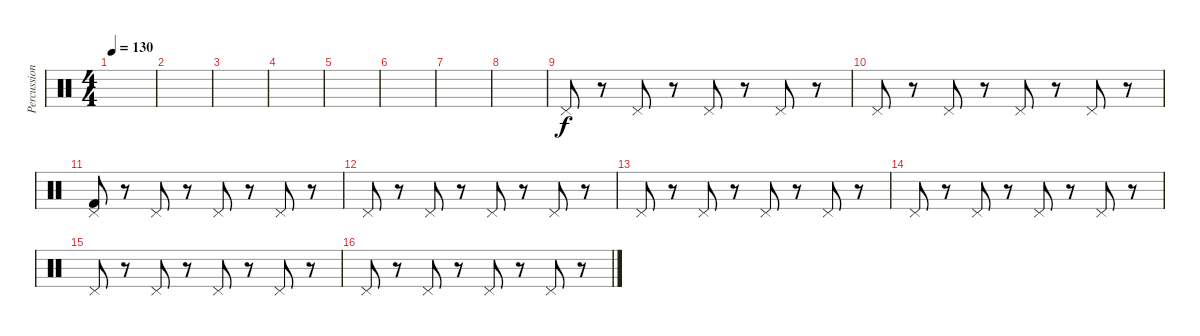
\track ("Percussion" "Percussion") {instrument percussion}
\staff {score}
\articulation defaults
\ts (4 4)
\tempo 130
\clef neutral
\ks c
|
|
|
|
|
|
|
|
"Pedal Hi-Hat (hit)".8 r.8 "Pedal Hi-Hat (hit)".8 r.8 "Pedal Hi-Hat (hit)".8 r.8 "Pedal Hi-Hat (hit)".8 r.8 |
"Pedal Hi-Hat (hit)".8 r.8 "Pedal Hi-Hat (hit)".8 r.8 "Pedal Hi-Hat (hit)".8 r.8 "Pedal Hi-Hat (hit)".8 r.8 |
("Kick (hit) 2" "Pedal Hi-Hat (hit)").8 r.8 "Pedal Hi-Hat (hit)".8 r.8 "Pedal Hi-Hat (hit)".8 r.8 "Pedal Hi-Hat (hit)".8 r.8 |
"Pedal Hi-Hat (hit)".8 r.8 "Pedal Hi-Hat (hit)".8 r.8 "Pedal Hi-Hat (hit)".8 r.8 "Pedal Hi-Hat (hit)".8 r.8 |
"Pedal Hi-Hat (hit)".8 r.8 "Pedal Hi-Hat (hit)".8 r.8 "Pedal Hi-Hat (hit)".8 r.8 "Pedal Hi-Hat (hit)".8 r.8 |
"Pedal Hi-Hat (hit)".8 r.8 "Pedal Hi-Hat (hit)".8 r.8 "Pedal Hi-Hat (hit)".8 r.8 "Pedal Hi-Hat (hit)".8 r.8 |
"Pedal Hi-Hat (hit)".8 r.8 "Pedal Hi-Hat (hit)".8 r.8 "Pedal Hi-Hat (hit)".8 r.8 "Pedal Hi-Hat (hit)".8 r.8 |
"Pedal Hi-Hat (hit)".8 r.8 "Pedal Hi-Hat (hit)".8 r.8 "Pedal Hi-Hat (hit)".8 r.8 "Pedal Hi-Hat (hit)".8 r.8
